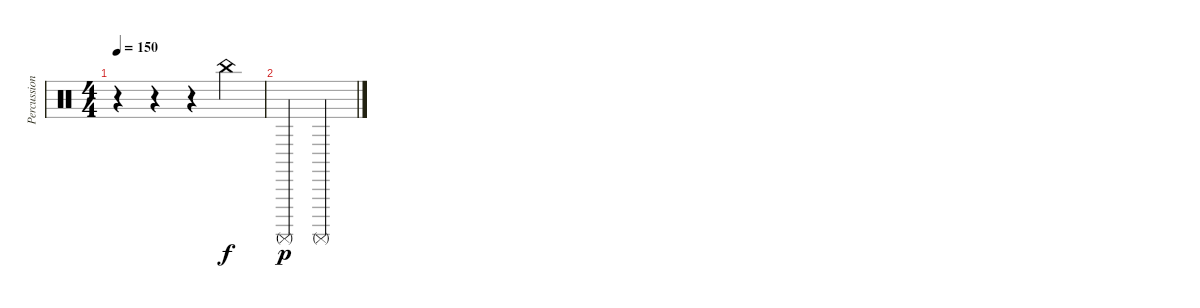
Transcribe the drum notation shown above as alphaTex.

\track ("Percussion" "Percussion") {instrument percussion}
\staff {score}
\articulation defaults
\ts (4 4)
\tempo 150
\clef neutral
\ks c
r.4{dy f} r.4 r.4 "China (hit)".4 |
"Surdo (mute)".4{dy p} "Surdo (mute)".4
